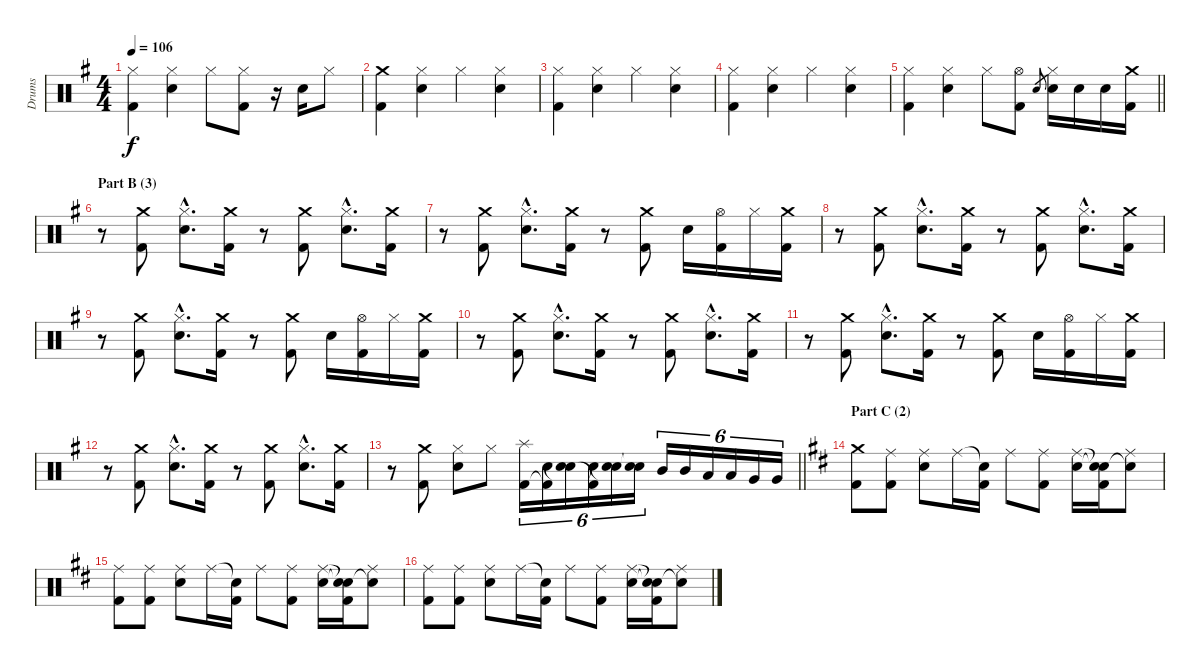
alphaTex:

\track ("Drums" "Drums") {instrument percussion}
\staff {score}
\articulation defaults
\ts (4 4)
\tempo 106
\clef neutral
\ks g
("Hi-Hat (closed)" "Kick (hit) 2").4{dy f} ("Hi-Hat (closed)" "Electric Snare (hit)").4 "Hi-Hat (closed)".8 ("Hi-Hat (closed)" "Kick (hit) 2").8 r.16 "Electric Snare (hit)".16 "Hi-Hat (closed)".8 |
("Crash medium (hit)" "Kick (hit) 2").4 ("Hi-Hat (closed)" "Electric Snare (hit)").4 "Hi-Hat (closed)".4 ("Hi-Hat (closed)" "Electric Snare (hit)").4 |
("Hi-Hat (closed)" "Kick (hit) 2").4 ("Hi-Hat (closed)" "Electric Snare (hit)").4 "Hi-Hat (closed)".4 ("Hi-Hat (closed)" "Electric Snare (hit)").4 |
("Hi-Hat (closed)" "Kick (hit) 2").4 ("Hi-Hat (closed)" "Electric Snare (hit)").4 "Hi-Hat (closed)".4 ("Hi-Hat (closed)" "Electric Snare (hit)").4 |
\barLineRight lightlight
("Hi-Hat (closed)" "Kick (hit) 2").4 ("Hi-Hat (closed)" "Electric Snare (hit)").4 "Hi-Hat (closed)".8 ("Hi-Hat (open)" "Kick (hit) 2").8 "Electric Snare (hit)".8{gr} ("Hi-Hat (closed)" "Electric Snare (hit)").16 "Electric Snare (hit)".16 "Electric Snare (hit)".16 ("Crash medium (hit)" "Kick (hit) 2").16 |
\section ("" "Part B (3)")
r.8 ("Crash medium (hit)" "Kick (hit) 2").8 ("Hi-Hat (closed)"{hac} "Electric Snare (hit)"{hac}).8{d} ("Crash medium (hit)" "Kick (hit) 2").16 r.8 ("Crash medium (hit)" "Kick (hit) 2").8 ("Hi-Hat (closed)"{hac} "Electric Snare (hit)"{hac}).8{d} ("Crash medium (hit)" "Kick (hit) 2").16 |
r.8 ("Crash medium (hit)" "Kick (hit) 2").8 ("Hi-Hat (closed)"{hac} "Electric Snare (hit)"{hac}).8{d} ("Crash medium (hit)" "Kick (hit) 2").16 r.8 ("Crash medium (hit)" "Kick (hit) 2").8 "Electric Snare (hit)".16 ("Hi-Hat (open)" "Kick (hit) 2").16 "Hi-Hat (closed)".16 ("Crash medium (hit)" "Kick (hit) 2").16 |
r.8 ("Crash medium (hit)" "Kick (hit) 2").8 ("Hi-Hat (closed)"{hac} "Electric Snare (hit)"{hac}).8{d} ("Crash medium (hit)" "Kick (hit) 2").16 r.8 ("Crash medium (hit)" "Kick (hit) 2").8 ("Hi-Hat (closed)"{hac} "Electric Snare (hit)"{hac}).8{d} ("Crash medium (hit)" "Kick (hit) 2").16 |
r.8 ("Crash medium (hit)" "Kick (hit) 2").8 ("Hi-Hat (closed)"{hac} "Electric Snare (hit)"{hac}).8{d} ("Crash medium (hit)" "Kick (hit) 2").16 r.8 ("Crash medium (hit)" "Kick (hit) 2").8 "Electric Snare (hit)".16 ("Hi-Hat (open)" "Kick (hit) 2").16 "Hi-Hat (closed)".16 ("Crash medium (hit)" "Kick (hit) 2").16 |
r.8 ("Crash medium (hit)" "Kick (hit) 2").8 ("Hi-Hat (closed)"{hac} "Electric Snare (hit)"{hac}).8{d} ("Crash medium (hit)" "Kick (hit) 2").16 r.8 ("Crash medium (hit)" "Kick (hit) 2").8 ("Hi-Hat (closed)"{hac} "Electric Snare (hit)"{hac}).8{d} ("Crash medium (hit)" "Kick (hit) 2").16 |
r.8 ("Crash medium (hit)" "Kick (hit) 2").8 ("Hi-Hat (closed)"{hac} "Electric Snare (hit)"{hac}).8{d} ("Crash medium (hit)" "Kick (hit) 2").16 r.8 ("Crash medium (hit)" "Kick (hit) 2").8 "Electric Snare (hit)".16 ("Hi-Hat (open)" "Kick (hit) 2").16 "Hi-Hat (closed)".16 ("Crash medium (hit)" "Kick (hit) 2").16 |
r.8 ("Crash medium (hit)" "Kick (hit) 2").8 ("Hi-Hat (closed)"{hac} "Electric Snare (hit)"{hac}).8{d} ("Crash medium (hit)" "Kick (hit) 2").16 r.8 ("Crash medium (hit)" "Kick (hit) 2").8 ("Hi-Hat (closed)"{hac} "Electric Snare (hit)"{hac}).8{d} ("Crash medium (hit)" "Kick (hit) 2").16 |
\barLineRight lightlight
r.8 ("Crash medium (hit)" "Kick (hit) 2").8 ("Hi-Hat (closed)" "Electric Snare (hit)").8 "Hi-Hat (closed)".8 ("Splash (hit)" "Kick (hit) 2").16{tu (6 4)} ("Electric Snare (hit)" "Kick (hit) 2"{t}).16{tu (6 4)} ("Electric Snare (hit)" "Snare (hit)"{t}).16{tu (6 4)} ("Electric Snare (hit)" "Kick (hit) 2"{t}).16{tu (6 4)} ("Electric Snare (hit)" "Snare (hit)"{t}).16{tu (6 4)} ("Electric Snare (hit)" "Snare (hit)"{t}).16{tu (6 4)} "Mid Tom (hit)".16{tu (6 4)} "Mid Tom (hit)".16{tu (6 4)} "Low Tom (hit)".16{tu (6 4)} "Low Tom (hit)".16{tu (6 4)} "Very Low Tom (hit)".16{tu (6 4)} "Very Low Tom (hit)".16{tu (6 4)} |
\section ("" "Part C (2)")
\ks d
("Crash medium (hit)" "Kick (hit) 2").8 ("Ride (middle)" "Kick (hit) 2").8 ("Ride (middle)" "Electric Snare (hit)").8 "Ride (middle)".16 ("Snare (hit)"{t} "Kick (hit) 2").16 "Ride (middle)".8 ("Ride (middle)" "Kick (hit) 2").8 ("Ride (middle)" "Electric Snare (hit)").16 ("Snare (hit)"{t} "Snare (hit)"{t} "Kick (hit) 2").16 ("Ride (middle)" "Snare (hit)"{t}).8 |
("Ride (middle)" "Kick (hit) 2").8 ("Ride (middle)" "Kick (hit) 2").8 ("Ride (middle)" "Electric Snare (hit)").8 "Ride (middle)".16 ("Snare (hit)"{t} "Kick (hit) 2").16 "Ride (middle)".8 ("Ride (middle)" "Kick (hit) 2").8 ("Ride (middle)" "Electric Snare (hit)").16 ("Snare (hit)"{t} "Snare (hit)"{t} "Kick (hit) 2").16 ("Ride (middle)" "Snare (hit)"{t}).8 |
("Ride (middle)" "Kick (hit) 2").8 ("Ride (middle)" "Kick (hit) 2").8 ("Ride (middle)" "Electric Snare (hit)").8 "Ride (middle)".16 ("Snare (hit)"{t} "Kick (hit) 2").16 "Ride (middle)".8 ("Ride (middle)" "Kick (hit) 2").8 ("Ride (middle)" "Electric Snare (hit)").16 ("Snare (hit)"{t} "Snare (hit)"{t} "Kick (hit) 2").16 ("Ride (middle)" "Snare (hit)"{t}).8
